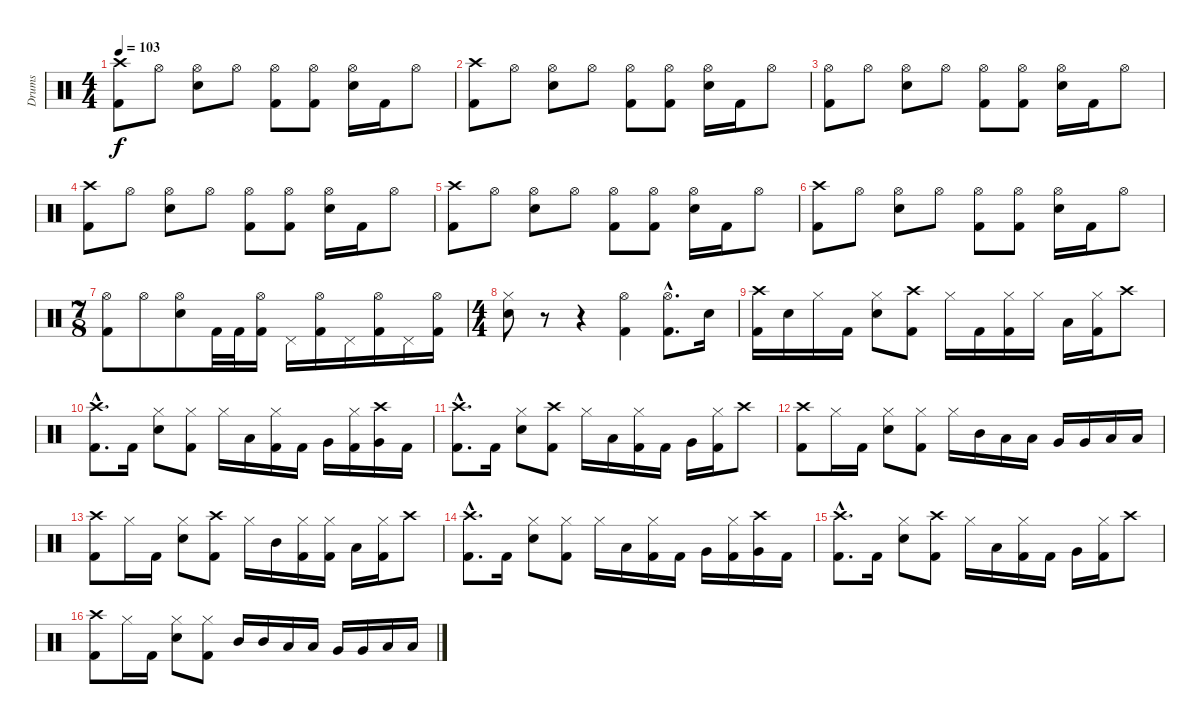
\track ("Drums" "Drums") {instrument percussion}
\staff {score}
\articulation defaults
\ts (4 4)
\tempo 103
\clef neutral
\ks c
("Crash high (hit)" "Kick (hit) 2").8{dy f} "Hi-Hat (open)".8 ("Hi-Hat (open)" "Electric Snare (hit)").8 "Hi-Hat (open)".8 ("Hi-Hat (open)" "Kick (hit) 2").8 ("Hi-Hat (open)" "Kick (hit) 2").8 ("Hi-Hat (open)" "Electric Snare (hit)").16 "Kick (hit) 2".16 "Hi-Hat (open)".8 |
("Crash high (hit)" "Kick (hit) 2").8 "Hi-Hat (open)".8 ("Hi-Hat (open)" "Electric Snare (hit)").8 "Hi-Hat (open)".8 ("Hi-Hat (open)" "Kick (hit) 2").8 ("Hi-Hat (open)" "Kick (hit) 2").8 ("Hi-Hat (open)" "Electric Snare (hit)").16 "Kick (hit) 2".16 "Hi-Hat (open)".8 |
("Hi-Hat (open)" "Kick (hit) 2").8 "Hi-Hat (open)".8 ("Hi-Hat (open)" "Electric Snare (hit)").8 "Hi-Hat (open)".8 ("Hi-Hat (open)" "Kick (hit) 2").8 ("Hi-Hat (open)" "Kick (hit) 2").8 ("Hi-Hat (open)" "Electric Snare (hit)").16 "Kick (hit) 2".16 "Hi-Hat (open)".8 |
("Crash high (hit)" "Kick (hit) 2").8 "Hi-Hat (open)".8 ("Hi-Hat (open)" "Electric Snare (hit)").8 "Hi-Hat (open)".8 ("Hi-Hat (open)" "Kick (hit) 2").8 ("Hi-Hat (open)" "Kick (hit) 2").8 ("Hi-Hat (open)" "Electric Snare (hit)").16 "Kick (hit) 2".16 "Hi-Hat (open)".8 |
("Crash high (hit)" "Kick (hit) 2").8 "Hi-Hat (open)".8 ("Hi-Hat (open)" "Electric Snare (hit)").8 "Hi-Hat (open)".8 ("Hi-Hat (open)" "Kick (hit) 2").8 ("Hi-Hat (open)" "Kick (hit) 2").8 ("Hi-Hat (open)" "Electric Snare (hit)").16 "Kick (hit) 2".16 "Hi-Hat (open)".8 |
("Crash high (hit)" "Kick (hit) 2").8 "Hi-Hat (open)".8 ("Hi-Hat (open)" "Electric Snare (hit)").8 "Hi-Hat (open)".8 ("Hi-Hat (open)" "Kick (hit) 2").8 ("Hi-Hat (open)" "Kick (hit) 2").8 ("Hi-Hat (open)" "Electric Snare (hit)").16 "Kick (hit) 2".16 "Hi-Hat (open)".8 |
\ts (7 8)
("Hi-Hat (open)" "Kick (hit) 2").8 "Hi-Hat (open)".8 ("Hi-Hat (open)" "Electric Snare (hit)").8 "Kick (hit) 2".32 "Kick (hit) 2".32 ("Hi-Hat (open)" "Kick (hit) 2").16 "Pedal Hi-Hat (hit)".16 ("Hi-Hat (open)" "Kick (hit) 2").16 "Pedal Hi-Hat (hit)".16 ("Hi-Hat (open)" "Kick (hit) 2").16 "Pedal Hi-Hat (hit)".16 ("Hi-Hat (open)" "Kick (hit) 2").16 |
\ts (4 4)
("Hi-Hat (closed)" "Electric Snare (hit)").8 r.8 r.4 ("Hi-Hat (open)" "Kick (hit) 2").4 ("Hi-Hat (open)"{hac} "Kick (hit) 2"{hac}).8{d} "Electric Snare (hit)".16 |
("Crash high (hit)" "Kick (hit) 2").16 "Electric Snare (hit)".16 "Hi-Hat (closed)".16 "Kick (hit) 2".16 ("Hi-Hat (closed)" "Electric Snare (hit)").8 ("Crash high (hit)" "Kick (hit) 2").8 "Hi-Hat (closed)".16 "Kick (hit) 2".16 ("Hi-Hat (closed)" "Kick (hit) 2").16 "Hi-Hat (closed)".16 "Low Tom (hit)".16 ("Hi-Hat (closed)" "Kick (hit) 2").16 "Crash high (hit)".8 |
("Crash high (hit)"{hac} "Kick (hit) 2"{hac}).8{d} "Kick (hit) 2".16 ("Hi-Hat (closed)" "Electric Snare (hit)").8 ("Hi-Hat (closed)" "Kick (hit) 2").8 "Hi-Hat (closed)".16 "Low Tom (hit)".16 ("Hi-Hat (closed)" "Kick (hit) 2").16 "Kick (hit) 2".16 "Very Low Tom (hit)".16 ("Hi-Hat (closed)" "Kick (hit) 2").16 ("Crash high (hit)" "Very Low Tom (hit)").16 "Kick (hit) 2".16 |
("Crash high (hit)"{hac} "Kick (hit) 2"{hac}).8{d} "Kick (hit) 2".16 ("Hi-Hat (closed)" "Electric Snare (hit)").8 ("Crash high (hit)" "Kick (hit) 2").8 "Hi-Hat (closed)".16 "Low Tom (hit)".16 ("Hi-Hat (closed)" "Kick (hit) 2").16 "Kick (hit) 2".16 "Very Low Tom (hit)".16 ("Hi-Hat (closed)" "Kick (hit) 2").16 "Crash high (hit)".8 |
("Crash high (hit)" "Kick (hit) 2").8 "Hi-Hat (closed)".16 "Kick (hit) 2".16 ("Hi-Hat (closed)" "Electric Snare (hit)").8 ("Hi-Hat (closed)" "Kick (hit) 2").8 "Hi-Hat (closed)".16 "Mid Tom (hit)".16 "Low Tom (hit)".16 "Low Tom (hit)".16 "Very Low Tom (hit)".16 "Very Low Tom (hit)".16 "Low Floor Tom (hit)".16 "Low Floor Tom (hit)".16 |
("Crash high (hit)" "Kick (hit) 2").8 "Hi-Hat (closed)".16 "Kick (hit) 2".16 ("Hi-Hat (closed)" "Electric Snare (hit)").8 ("Crash high (hit)" "Kick (hit) 2").8 "Hi-Hat (closed)".16 "Mid Tom (hit)".16 ("Hi-Hat (closed)" "Kick (hit) 2").16 ("Hi-Hat (closed)" "Kick (hit) 2").16 "Low Tom (hit)".16 ("Hi-Hat (closed)" "Kick (hit) 2").16 "Crash high (hit)".8 |
("Crash high (hit)"{hac} "Kick (hit) 2"{hac}).8{d} "Kick (hit) 2".16 ("Hi-Hat (closed)" "Electric Snare (hit)").8 ("Hi-Hat (closed)" "Kick (hit) 2").8 "Hi-Hat (closed)".16 "Low Tom (hit)".16 ("Hi-Hat (closed)" "Kick (hit) 2").16 "Kick (hit) 2".16 "Very Low Tom (hit)".16 ("Hi-Hat (closed)" "Kick (hit) 2").16 ("Crash high (hit)" "Very Low Tom (hit)").16 "Kick (hit) 2".16 |
("Crash high (hit)"{hac} "Kick (hit) 2"{hac}).8{d} "Kick (hit) 2".16 ("Hi-Hat (closed)" "Electric Snare (hit)").8 ("Crash high (hit)" "Kick (hit) 2").8 "Hi-Hat (closed)".16 "Low Tom (hit)".16 ("Hi-Hat (closed)" "Kick (hit) 2").16 "Kick (hit) 2".16 "Very Low Tom (hit)".16 ("Hi-Hat (closed)" "Kick (hit) 2").16 "Crash high (hit)".8 |
("Crash high (hit)" "Kick (hit) 2").8 "Hi-Hat (closed)".16 "Kick (hit) 2".16 ("Hi-Hat (closed)" "Electric Snare (hit)").8 ("Hi-Hat (closed)" "Kick (hit) 2").8 "Mid Tom (hit)".16 "Mid Tom (hit)".16 "Low Tom (hit)".16 "Low Tom (hit)".16 "Very Low Tom (hit)".16 "Very Low Tom (hit)".16 "Low Floor Tom (hit)".16 "Low Floor Tom (hit)".16
